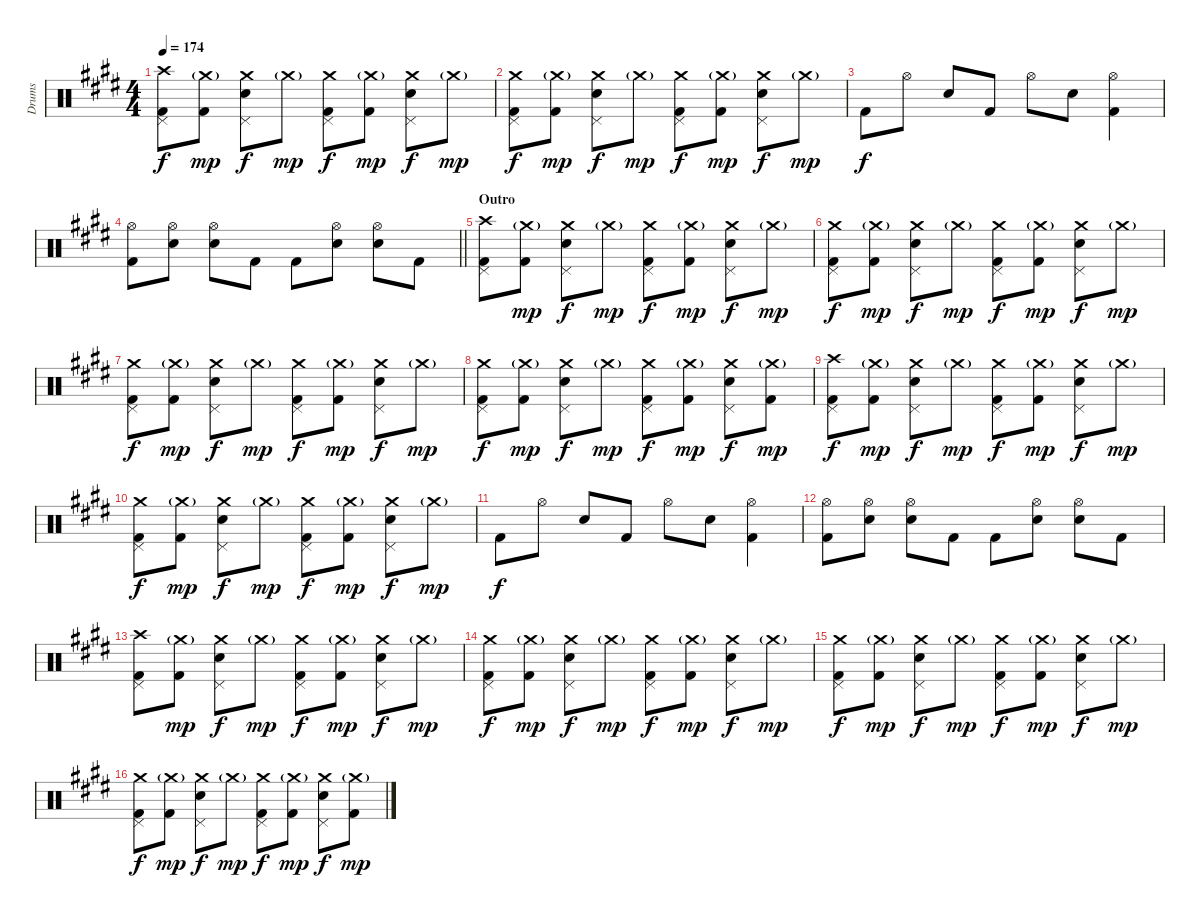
\track ("Drums" "Drums") {instrument percussion bank 177}
\staff {score}
\articulation defaults
\ts (4 4)
\tempo 174
\clef neutral
\ks e
("Crash high (hit)" "Kick (hit) 2" "Pedal Hi-Hat (hit)").8{dy f} ("Crash medium (hit)"{g} "Kick (hit) 2").8{dy mp} ("Crash medium (hit)" "Electric Snare (hit)" "Pedal Hi-Hat (hit)").8{dy f} "Crash medium (hit)"{g}.8{dy mp} ("Crash medium (hit)" "Kick (hit) 2" "Pedal Hi-Hat (hit)").8{dy f} ("Crash medium (hit)"{g} "Kick (hit) 2").8{dy mp} ("Crash medium (hit)" "Electric Snare (hit)" "Pedal Hi-Hat (hit)").8{dy f} "Crash medium (hit)"{g}.8{dy mp} |
("Crash medium (hit)" "Kick (hit) 2" "Pedal Hi-Hat (hit)").8{dy f} ("Crash medium (hit)"{g} "Kick (hit) 2").8{dy mp} ("Crash medium (hit)" "Electric Snare (hit)" "Pedal Hi-Hat (hit)").8{dy f} "Crash medium (hit)"{g}.8{dy mp} ("Crash medium (hit)" "Kick (hit) 2" "Pedal Hi-Hat (hit)").8{dy f} ("Crash medium (hit)"{g} "Kick (hit) 2").8{dy mp} ("Crash medium (hit)" "Electric Snare (hit)" "Pedal Hi-Hat (hit)").8{dy f} "Crash medium (hit)"{g}.8{dy mp} |
"Kick (hit) 2".8{dy f} "Hi-Hat (open)".8 "Electric Snare (hit)".8 "Kick (hit) 2".8 "Hi-Hat (open)".8 "Electric Snare (hit)".8 ("Hi-Hat (open)" "Kick (hit) 2").4 |
\barLineRight lightlight
("Hi-Hat (open)" "Kick (hit) 2").8 ("Hi-Hat (open)" "Electric Snare (hit)").8 ("Hi-Hat (open)" "Electric Snare (hit)").8 "Kick (hit) 2".8 "Kick (hit) 2".8 ("Hi-Hat (open)" "Electric Snare (hit)").8 ("Hi-Hat (open)" "Electric Snare (hit)").8 "Kick (hit) 2".8 |
\section ("" "Outro")
("Crash high (hit)" "Kick (hit) 2" "Pedal Hi-Hat (hit)").8 ("Crash medium (hit)"{g} "Kick (hit) 2").8{dy mp} ("Crash medium (hit)" "Electric Snare (hit)" "Pedal Hi-Hat (hit)").8{dy f} "Crash medium (hit)"{g}.8{dy mp} ("Crash medium (hit)" "Kick (hit) 2" "Pedal Hi-Hat (hit)").8{dy f} ("Crash medium (hit)"{g} "Kick (hit) 2").8{dy mp} ("Crash medium (hit)" "Electric Snare (hit)" "Pedal Hi-Hat (hit)").8{dy f} "Crash medium (hit)"{g}.8{dy mp} |
("Crash medium (hit)" "Kick (hit) 2" "Pedal Hi-Hat (hit)").8{dy f} ("Crash medium (hit)"{g} "Kick (hit) 2").8{dy mp} ("Crash medium (hit)" "Electric Snare (hit)" "Pedal Hi-Hat (hit)").8{dy f} "Crash medium (hit)"{g}.8{dy mp} ("Crash medium (hit)" "Kick (hit) 2" "Pedal Hi-Hat (hit)").8{dy f} ("Crash medium (hit)"{g} "Kick (hit) 2").8{dy mp} ("Crash medium (hit)" "Electric Snare (hit)" "Pedal Hi-Hat (hit)").8{dy f} "Crash medium (hit)"{g}.8{dy mp} |
("Crash medium (hit)" "Kick (hit) 2" "Pedal Hi-Hat (hit)").8{dy f} ("Crash medium (hit)"{g} "Kick (hit) 2").8{dy mp} ("Crash medium (hit)" "Electric Snare (hit)" "Pedal Hi-Hat (hit)").8{dy f} "Crash medium (hit)"{g}.8{dy mp} ("Crash medium (hit)" "Kick (hit) 2" "Pedal Hi-Hat (hit)").8{dy f} ("Crash medium (hit)"{g} "Kick (hit) 2").8{dy mp} ("Crash medium (hit)" "Electric Snare (hit)" "Pedal Hi-Hat (hit)").8{dy f} "Crash medium (hit)"{g}.8{dy mp} |
("Crash medium (hit)" "Kick (hit) 2" "Pedal Hi-Hat (hit)").8{dy f} ("Crash medium (hit)"{g} "Kick (hit) 2").8{dy mp} ("Crash medium (hit)" "Electric Snare (hit)" "Pedal Hi-Hat (hit)").8{dy f} "Crash medium (hit)"{g}.8{dy mp} ("Crash medium (hit)" "Kick (hit) 2" "Pedal Hi-Hat (hit)").8{dy f} ("Crash medium (hit)"{g} "Kick (hit) 2").8{dy mp} ("Crash medium (hit)" "Electric Snare (hit)" "Pedal Hi-Hat (hit)").8{dy f} ("Crash medium (hit)"{g} "Kick (hit) 2").8{dy mp} |
("Crash high (hit)" "Kick (hit) 2" "Pedal Hi-Hat (hit)").8{dy f} ("Crash medium (hit)"{g} "Kick (hit) 2").8{dy mp} ("Crash medium (hit)" "Electric Snare (hit)" "Pedal Hi-Hat (hit)").8{dy f} "Crash medium (hit)"{g}.8{dy mp} ("Crash medium (hit)" "Kick (hit) 2" "Pedal Hi-Hat (hit)").8{dy f} ("Crash medium (hit)"{g} "Kick (hit) 2").8{dy mp} ("Crash medium (hit)" "Electric Snare (hit)" "Pedal Hi-Hat (hit)").8{dy f} "Crash medium (hit)"{g}.8{dy mp} |
("Crash medium (hit)" "Kick (hit) 2" "Pedal Hi-Hat (hit)").8{dy f} ("Crash medium (hit)"{g} "Kick (hit) 2").8{dy mp} ("Crash medium (hit)" "Electric Snare (hit)" "Pedal Hi-Hat (hit)").8{dy f} "Crash medium (hit)"{g}.8{dy mp} ("Crash medium (hit)" "Kick (hit) 2" "Pedal Hi-Hat (hit)").8{dy f} ("Crash medium (hit)"{g} "Kick (hit) 2").8{dy mp} ("Crash medium (hit)" "Electric Snare (hit)" "Pedal Hi-Hat (hit)").8{dy f} "Crash medium (hit)"{g}.8{dy mp} |
"Kick (hit) 2".8{dy f} "Hi-Hat (open)".8 "Electric Snare (hit)".8 "Kick (hit) 2".8 "Hi-Hat (open)".8 "Electric Snare (hit)".8 ("Hi-Hat (open)" "Kick (hit) 2").4 |
("Hi-Hat (open)" "Kick (hit) 2").8 ("Hi-Hat (open)" "Electric Snare (hit)").8 ("Hi-Hat (open)" "Electric Snare (hit)").8 "Kick (hit) 2".8 "Kick (hit) 2".8 ("Hi-Hat (open)" "Electric Snare (hit)").8 ("Hi-Hat (open)" "Electric Snare (hit)").8 "Kick (hit) 2".8 |
("Crash high (hit)" "Kick (hit) 2" "Pedal Hi-Hat (hit)").8 ("Crash medium (hit)"{g} "Kick (hit) 2").8{dy mp} ("Crash medium (hit)" "Electric Snare (hit)" "Pedal Hi-Hat (hit)").8{dy f} "Crash medium (hit)"{g}.8{dy mp} ("Crash medium (hit)" "Kick (hit) 2" "Pedal Hi-Hat (hit)").8{dy f} ("Crash medium (hit)"{g} "Kick (hit) 2").8{dy mp} ("Crash medium (hit)" "Electric Snare (hit)" "Pedal Hi-Hat (hit)").8{dy f} "Crash medium (hit)"{g}.8{dy mp} |
("Crash medium (hit)" "Kick (hit) 2" "Pedal Hi-Hat (hit)").8{dy f} ("Crash medium (hit)"{g} "Kick (hit) 2").8{dy mp} ("Crash medium (hit)" "Electric Snare (hit)" "Pedal Hi-Hat (hit)").8{dy f} "Crash medium (hit)"{g}.8{dy mp} ("Crash medium (hit)" "Kick (hit) 2" "Pedal Hi-Hat (hit)").8{dy f} ("Crash medium (hit)"{g} "Kick (hit) 2").8{dy mp} ("Crash medium (hit)" "Electric Snare (hit)" "Pedal Hi-Hat (hit)").8{dy f} "Crash medium (hit)"{g}.8{dy mp} |
("Crash medium (hit)" "Kick (hit) 2" "Pedal Hi-Hat (hit)").8{dy f} ("Crash medium (hit)"{g} "Kick (hit) 2").8{dy mp} ("Crash medium (hit)" "Electric Snare (hit)" "Pedal Hi-Hat (hit)").8{dy f} "Crash medium (hit)"{g}.8{dy mp} ("Crash medium (hit)" "Kick (hit) 2" "Pedal Hi-Hat (hit)").8{dy f} ("Crash medium (hit)"{g} "Kick (hit) 2").8{dy mp} ("Crash medium (hit)" "Electric Snare (hit)" "Pedal Hi-Hat (hit)").8{dy f} "Crash medium (hit)"{g}.8{dy mp} |
("Crash medium (hit)" "Kick (hit) 2" "Pedal Hi-Hat (hit)").8{dy f} ("Crash medium (hit)"{g} "Kick (hit) 2").8{dy mp} ("Crash medium (hit)" "Electric Snare (hit)" "Pedal Hi-Hat (hit)").8{dy f} "Crash medium (hit)"{g}.8{dy mp} ("Crash medium (hit)" "Kick (hit) 2" "Pedal Hi-Hat (hit)").8{dy f} ("Crash medium (hit)"{g} "Kick (hit) 2").8{dy mp} ("Crash medium (hit)" "Electric Snare (hit)" "Pedal Hi-Hat (hit)").8{dy f} ("Crash medium (hit)"{g} "Kick (hit) 2").8{dy mp}
